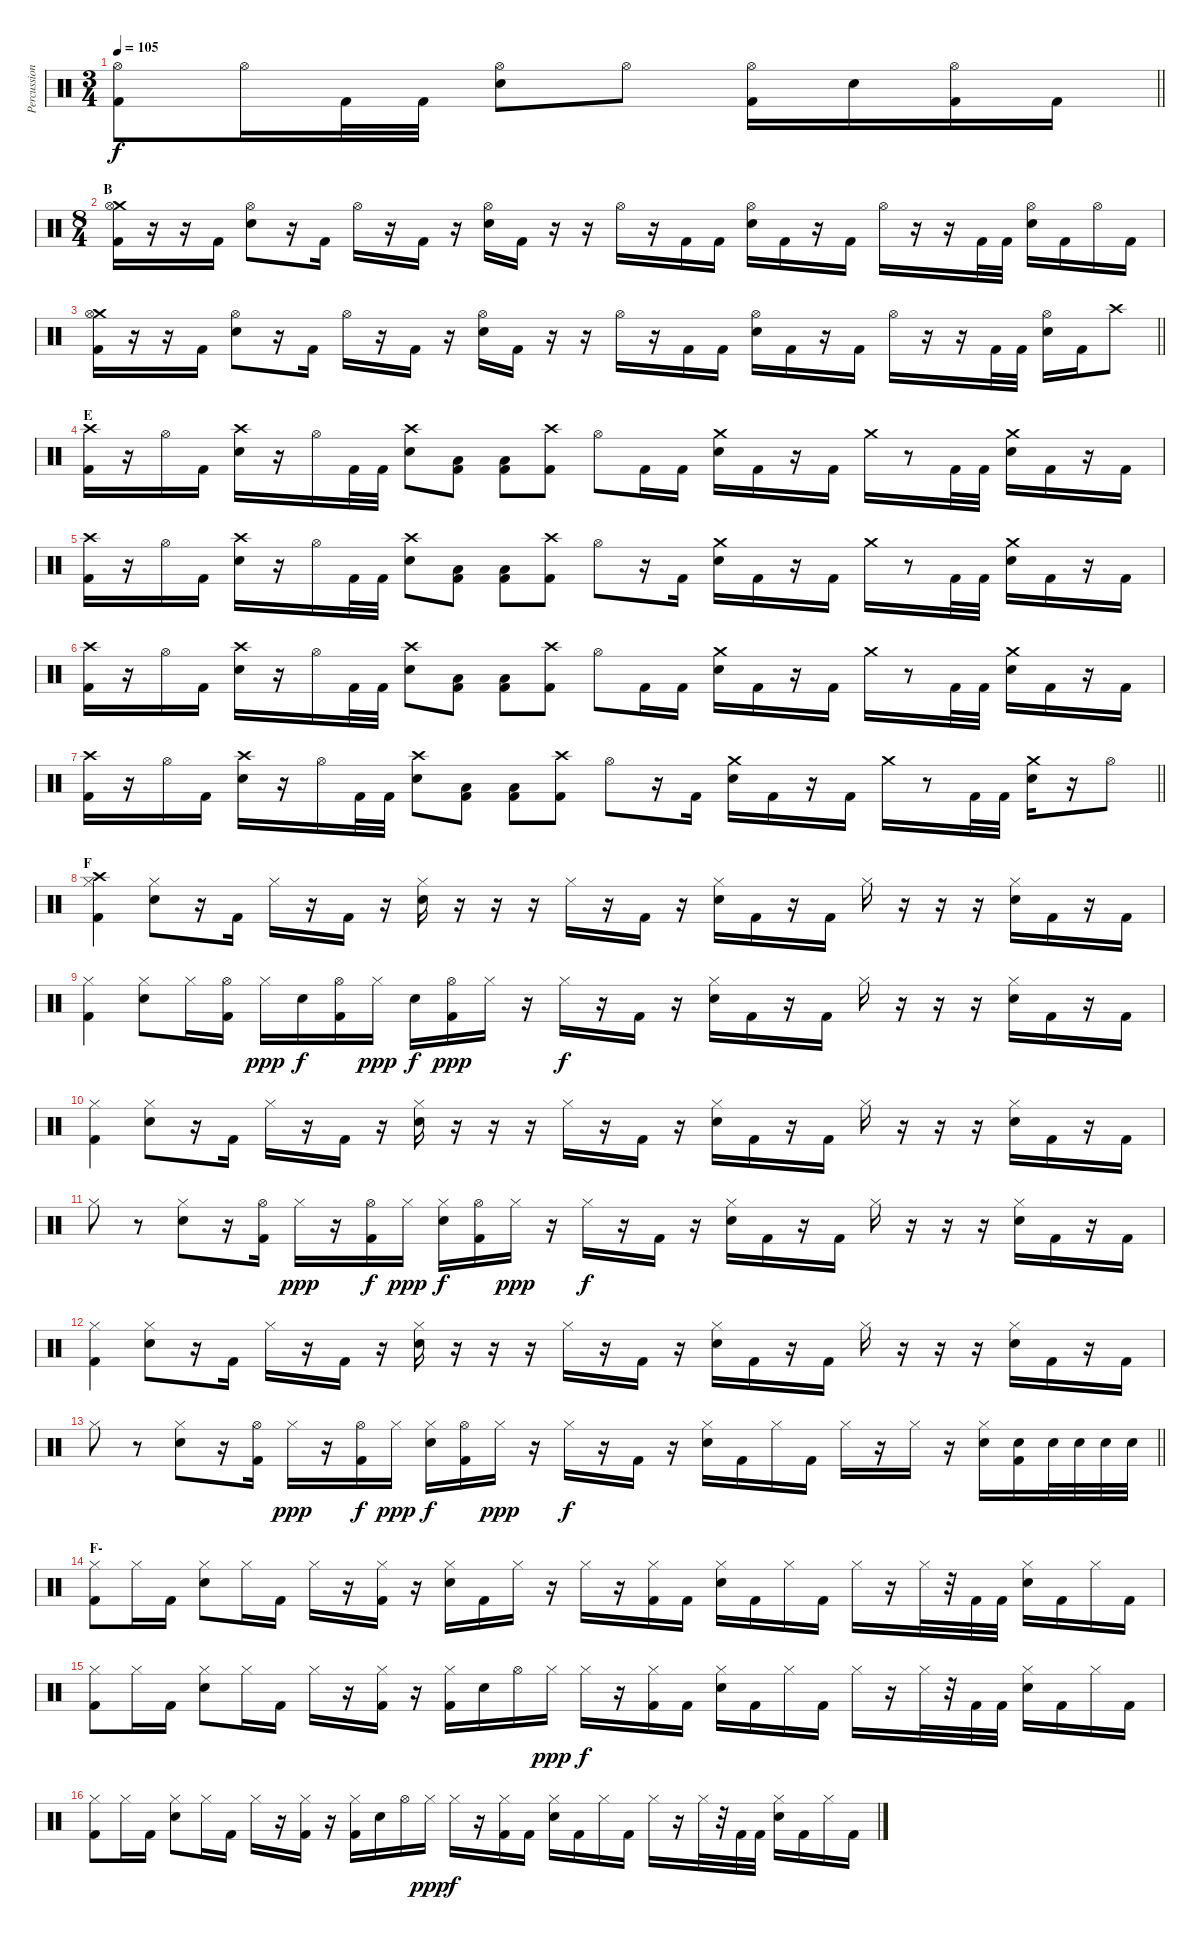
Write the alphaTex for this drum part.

\track ("Percussions" "Percussion") {instrument percussion}
\staff {score}
\articulation defaults
\ts (3 4)
\tempo 105
\clef neutral
\barLineRight lightlight
\ks c
("Hi-Hat (open)" "Kick (hit) 2").8{dy f} "Hi-Hat (open)".16 "Kick (hit) 2".32 "Kick (hit) 2".32 ("Hi-Hat (open)" "Snare (hit) 2").8 "Hi-Hat (open)".8 ("Hi-Hat (open)" "Kick (hit) 2").16 "Snare (hit) 2".16 ("Hi-Hat (open)" "Kick (hit) 2").16 "Kick (hit) 2".16 |
\ts (8 4)
\section ("" "B")
("Crash medium (hit)" "Hi-Hat (open)" "Kick (hit) 2").16 r.16 r.16 "Kick (hit) 2".16 ("Hi-Hat (open)" "Snare (hit) 2").8 r.16 "Kick (hit) 2".16 "Hi-Hat (open)".16 r.16 "Kick (hit) 2".16 r.16 ("Hi-Hat (open)" "Snare (hit) 2").16 "Kick (hit) 2".16 r.16 r.16 "Hi-Hat (open)".16 r.16 "Kick (hit) 2".16 "Kick (hit) 2".16 ("Hi-Hat (open)" "Snare (hit) 2").16 "Kick (hit) 2".16 r.16 "Kick (hit) 2".16 "Hi-Hat (open)".16 r.16 r.16 "Kick (hit) 2".32 "Kick (hit) 2".32 ("Hi-Hat (open)" "Snare (hit) 2").16 "Kick (hit) 2".16 "Hi-Hat (open)".16 "Kick (hit) 2".16 |
\barLineRight lightlight
("Crash medium (hit)" "Hi-Hat (open)" "Kick (hit) 2").16 r.16 r.16 "Kick (hit) 2".16 ("Hi-Hat (open)" "Snare (hit) 2").8 r.16 "Kick (hit) 2".16 "Hi-Hat (open)".16 r.16 "Kick (hit) 2".16 r.16 ("Hi-Hat (open)" "Snare (hit) 2").16 "Kick (hit) 2".16 r.16 r.16 "Hi-Hat (open)".16 r.16 "Kick (hit) 2".16 "Kick (hit) 2".16 ("Hi-Hat (open)" "Snare (hit) 2").16 "Kick (hit) 2".16 r.16 "Kick (hit) 2".16 "Hi-Hat (open)".16 r.16 r.16 "Kick (hit) 2".32 "Kick (hit) 2".32 ("Hi-Hat (open)" "Snare (hit) 2").16 "Kick (hit) 2".16 "Crash high (hit)".8 |
\section ("" "E")
("Crash high (hit)" "Kick (hit) 2").16 r.16 "Hi-Hat (open)".16 "Kick (hit) 2".16 ("Crash high (hit)" "Snare (hit) 2").16 r.16 "Hi-Hat (open)".16 "Kick (hit) 2".32 "Kick (hit) 2".32 ("Crash high (hit)" "Snare (hit) 2").8 ("Low Tom (hit)" "Kick (hit) 2").8 ("Low Tom (hit)" "Kick (hit) 2").8 ("Crash high (hit)" "Kick (hit) 2").8 "Hi-Hat (open)".8 "Kick (hit) 2".16 "Kick (hit) 2".16 ("Crash medium (hit)" "Snare (hit) 2").16 "Kick (hit) 2".16 r.16 "Kick (hit) 2".16 "Crash medium (hit)".16 r.8 "Kick (hit) 2".32 "Kick (hit) 2".32 ("Crash medium (hit)" "Snare (hit) 2").16 "Kick (hit) 2".16 r.16 "Kick (hit) 2".16 |
("Crash high (hit)" "Kick (hit) 2").16 r.16 "Hi-Hat (open)".16 "Kick (hit) 2".16 ("Crash high (hit)" "Snare (hit) 2").16 r.16 "Hi-Hat (open)".16 "Kick (hit) 2".32 "Kick (hit) 2".32 ("Crash high (hit)" "Snare (hit) 2").8 ("Low Tom (hit)" "Kick (hit) 2").8 ("Low Tom (hit)" "Kick (hit) 2").8 ("Crash high (hit)" "Kick (hit) 2").8 "Hi-Hat (open)".8 r.16 "Kick (hit) 2".16 ("Crash medium (hit)" "Snare (hit) 2").16 "Kick (hit) 2".16 r.16 "Kick (hit) 2".16 "Crash medium (hit)".16 r.8 "Kick (hit) 2".32 "Kick (hit) 2".32 ("Crash medium (hit)" "Snare (hit) 2").16 "Kick (hit) 2".16 r.16 "Kick (hit) 2".16 |
("Crash high (hit)" "Kick (hit) 2").16 r.16 "Hi-Hat (open)".16 "Kick (hit) 2".16 ("Crash high (hit)" "Snare (hit) 2").16 r.16 "Hi-Hat (open)".16 "Kick (hit) 2".32 "Kick (hit) 2".32 ("Crash high (hit)" "Snare (hit) 2").8 ("Low Tom (hit)" "Kick (hit) 2").8 ("Low Tom (hit)" "Kick (hit) 2").8 ("Crash high (hit)" "Kick (hit) 2").8 "Hi-Hat (open)".8 "Kick (hit) 2".16 "Kick (hit) 2".16 ("Crash medium (hit)" "Snare (hit) 2").16 "Kick (hit) 2".16 r.16 "Kick (hit) 2".16 "Crash medium (hit)".16 r.8 "Kick (hit) 2".32 "Kick (hit) 2".32 ("Crash medium (hit)" "Snare (hit) 2").16 "Kick (hit) 2".16 r.16 "Kick (hit) 2".16 |
\barLineRight lightlight
("Crash high (hit)" "Kick (hit) 2").16 r.16 "Hi-Hat (open)".16 "Kick (hit) 2".16 ("Crash high (hit)" "Snare (hit) 2").16 r.16 "Hi-Hat (open)".16 "Kick (hit) 2".32 "Kick (hit) 2".32 ("Crash high (hit)" "Snare (hit) 2").8 ("Low Tom (hit)" "Kick (hit) 2").8 ("Low Tom (hit)" "Kick (hit) 2").8 ("Crash high (hit)" "Kick (hit) 2").8 "Hi-Hat (open)".8 r.16 "Kick (hit) 2".16 ("Crash medium (hit)" "Snare (hit) 2").16 "Kick (hit) 2".16 r.16 "Kick (hit) 2".16 "Crash medium (hit)".16 r.8 "Kick (hit) 2".32 "Kick (hit) 2".32 ("Crash medium (hit)" "Snare (hit) 2").16 r.16 "Hi-Hat (open)".8 |
\section ("" "F")
("Crash high (hit)" "Hi-Hat (closed)" "Kick (hit) 2").4 ("Hi-Hat (closed)" "Snare (hit) 2").8 r.16 "Kick (hit) 2".16 "Hi-Hat (closed)".16 r.16 "Kick (hit) 2".16 r.16 ("Hi-Hat (closed)" "Snare (hit) 2").16 r.16 r.16 r.16 "Hi-Hat (closed)".16 r.16 "Kick (hit) 2".16 r.16 ("Hi-Hat (closed)" "Snare (hit) 2").16 "Kick (hit) 2".16 r.16 "Kick (hit) 2".16 "Hi-Hat (closed)".16 r.16 r.16 r.16 ("Hi-Hat (closed)" "Snare (hit) 2").16 "Kick (hit) 2".16 r.16 "Kick (hit) 2".16 |
("Hi-Hat (closed)" "Kick (hit) 2").4 ("Hi-Hat (closed)" "Snare (hit) 2").8 "Hi-Hat (closed)".16 ("Hi-Hat (open)" "Kick (hit) 2").16 "Hi-Hat (closed)".16{dy ppp} "Snare (hit) 2".16{dy f} ("Hi-Hat (open)" "Kick (hit) 2").16 "Hi-Hat (closed)".16{dy ppp} "Snare (hit) 2".16{dy f} ("Hi-Hat (open)" "Kick (hit) 2").16{dy ppp} "Hi-Hat (closed)".16 r.16 "Hi-Hat (closed)".16{dy f} r.16 "Kick (hit) 2".16 r.16 ("Hi-Hat (closed)" "Snare (hit) 2").16 "Kick (hit) 2".16 r.16 "Kick (hit) 2".16 "Hi-Hat (closed)".16 r.16 r.16 r.16 ("Hi-Hat (closed)" "Snare (hit) 2").16 "Kick (hit) 2".16 r.16 "Kick (hit) 2".16 |
("Hi-Hat (closed)" "Kick (hit) 2").4 ("Hi-Hat (closed)" "Snare (hit) 2").8 r.16 "Kick (hit) 2".16 "Hi-Hat (closed)".16 r.16 "Kick (hit) 2".16 r.16 ("Hi-Hat (closed)" "Snare (hit) 2").16 r.16 r.16 r.16 "Hi-Hat (closed)".16 r.16 "Kick (hit) 2".16 r.16 ("Hi-Hat (closed)" "Snare (hit) 2").16 "Kick (hit) 2".16 r.16 "Kick (hit) 2".16 "Hi-Hat (closed)".16 r.16 r.16 r.16 ("Hi-Hat (closed)" "Snare (hit) 2").16 "Kick (hit) 2".16 r.16 "Kick (hit) 2".16 |
"Hi-Hat (closed)".8 r.8 ("Hi-Hat (closed)" "Snare (hit) 2").8 r.16 ("Hi-Hat (open)" "Kick (hit) 2").16 "Hi-Hat (closed)".16{dy ppp} r.16 ("Hi-Hat (open)" "Kick (hit) 2").16{dy f} "Hi-Hat (closed)".16{dy ppp} ("Hi-Hat (closed)" "Snare (hit) 2").16{dy f} ("Hi-Hat (open)" "Kick (hit) 2").16 "Hi-Hat (closed)".16{dy ppp} r.16 "Hi-Hat (closed)".16{dy f} r.16 "Kick (hit) 2".16 r.16 ("Hi-Hat (closed)" "Snare (hit) 2").16 "Kick (hit) 2".16 r.16 "Kick (hit) 2".16 "Hi-Hat (closed)".16 r.16 r.16 r.16 ("Hi-Hat (closed)" "Snare (hit) 2").16 "Kick (hit) 2".16 r.16 "Kick (hit) 2".16 |
("Hi-Hat (closed)" "Kick (hit) 2").4 ("Hi-Hat (closed)" "Snare (hit) 2").8 r.16 "Kick (hit) 2".16 "Hi-Hat (closed)".16 r.16 "Kick (hit) 2".16 r.16 ("Hi-Hat (closed)" "Snare (hit) 2").16 r.16 r.16 r.16 "Hi-Hat (closed)".16 r.16 "Kick (hit) 2".16 r.16 ("Hi-Hat (closed)" "Snare (hit) 2").16 "Kick (hit) 2".16 r.16 "Kick (hit) 2".16 "Hi-Hat (closed)".16 r.16 r.16 r.16 ("Hi-Hat (closed)" "Snare (hit) 2").16 "Kick (hit) 2".16 r.16 "Kick (hit) 2".16 |
\barLineRight lightlight "Hi-Hat (closed)".8
r.8 ("Hi-Hat (closed)" "Snare (hit) 2").8 r.16 ("Hi-Hat (open)" "Kick (hit) 2").16 "Hi-Hat (closed)".16{dy ppp} r.16 ("Hi-Hat (open)" "Kick (hit) 2").16{dy f} "Hi-Hat (closed)".16{dy ppp} ("Hi-Hat (closed)" "Snare (hit) 2").16{dy f} ("Hi-Hat (open)" "Kick (hit) 2").16 "Hi-Hat (closed)".16{dy ppp} r.16 "Hi-Hat (closed)".16{dy f} r.16 "Kick (hit) 2".16 r.16 ("Hi-Hat (closed)" "Snare (hit) 2").16 "Kick (hit) 2".16 "Hi-Hat (closed)".16 "Kick (hit) 2".16 "Hi-Hat (closed)".16 r.16 "Hi-Hat (closed)".16 r.16 ("Hi-Hat (closed)" "Snare (hit) 2").16 ("Snare (hit) 2" "Kick (hit) 2").16 "Snare (hit) 2".32 "Snare (hit) 2".32 "Snare (hit) 2".32 "Snare (hit) 2".32 |
\section ("" "F-")
("Hi-Hat (closed)" "Kick (hit) 2").8 "Hi-Hat (closed)".16 "Kick (hit) 2".16 ("Hi-Hat (closed)" "Snare (hit) 2").8 "Hi-Hat (closed)".16 "Kick (hit) 2".16 "Hi-Hat (closed)".16 r.16 ("Hi-Hat (closed)" "Kick (hit) 2").16 r.16 ("Hi-Hat (closed)" "Snare (hit) 2").16 "Kick (hit) 2".16 "Hi-Hat (closed)".16 r.16 "Hi-Hat (closed)".16 r.16 ("Hi-Hat (closed)" "Kick (hit) 2").16 "Kick (hit) 2".16 ("Hi-Hat (closed)" "Snare (hit) 2").16 "Kick (hit) 2".16 "Hi-Hat (closed)".16 "Kick (hit) 2".16 "Hi-Hat (closed)".16 r.16 "Hi-Hat (closed)".32 r.32 "Kick (hit) 2".32 "Kick (hit) 2".32 ("Hi-Hat (closed)" "Snare (hit) 2").16 "Kick (hit) 2".16 "Hi-Hat (closed)".16 "Kick (hit) 2".16 |
("Hi-Hat (closed)" "Kick (hit) 2").8 "Hi-Hat (closed)".16 "Kick (hit) 2".16 ("Hi-Hat (closed)" "Snare (hit) 2").8 "Hi-Hat (closed)".16 "Kick (hit) 2".16 "Hi-Hat (closed)".16 r.16 ("Hi-Hat (closed)" "Kick (hit) 2").16 r.16 ("Hi-Hat (closed)" "Kick (hit) 2").16 "Snare (hit) 2".16 "Hi-Hat (open)".16 "Hi-Hat (closed)".16{dy ppp} "Hi-Hat (closed)".16{dy f} r.16 ("Hi-Hat (closed)" "Kick (hit) 2").16 "Kick (hit) 2".16 ("Hi-Hat (closed)" "Snare (hit) 2").16 "Kick (hit) 2".16 "Hi-Hat (closed)".16 "Kick (hit) 2".16 "Hi-Hat (closed)".16 r.16 "Hi-Hat (closed)".32 r.32 "Kick (hit) 2".32 "Kick (hit) 2".32 ("Hi-Hat (closed)" "Snare (hit) 2").16 "Kick (hit) 2".16 "Hi-Hat (closed)".16 "Kick (hit) 2".16 |
("Hi-Hat (closed)" "Kick (hit) 2").8 "Hi-Hat (closed)".16 "Kick (hit) 2".16 ("Hi-Hat (closed)" "Snare (hit) 2").8 "Hi-Hat (closed)".16 "Kick (hit) 2".16 "Hi-Hat (closed)".16 r.16 ("Hi-Hat (closed)" "Kick (hit) 2").16 r.16 ("Hi-Hat (closed)" "Kick (hit) 2").16 "Snare (hit) 2".16 "Hi-Hat (open)".16 "Hi-Hat (closed)".16{dy ppp} "Hi-Hat (closed)".16{dy f} r.16 ("Hi-Hat (closed)" "Kick (hit) 2").16 "Kick (hit) 2".16 ("Hi-Hat (closed)" "Snare (hit) 2").16 "Kick (hit) 2".16 "Hi-Hat (closed)".16 "Kick (hit) 2".16 "Hi-Hat (closed)".16 r.16 "Hi-Hat (closed)".32 r.32 "Kick (hit) 2".32 "Kick (hit) 2".32 ("Hi-Hat (closed)" "Snare (hit) 2").16 "Kick (hit) 2".16 "Hi-Hat (closed)".16 "Kick (hit) 2".16
